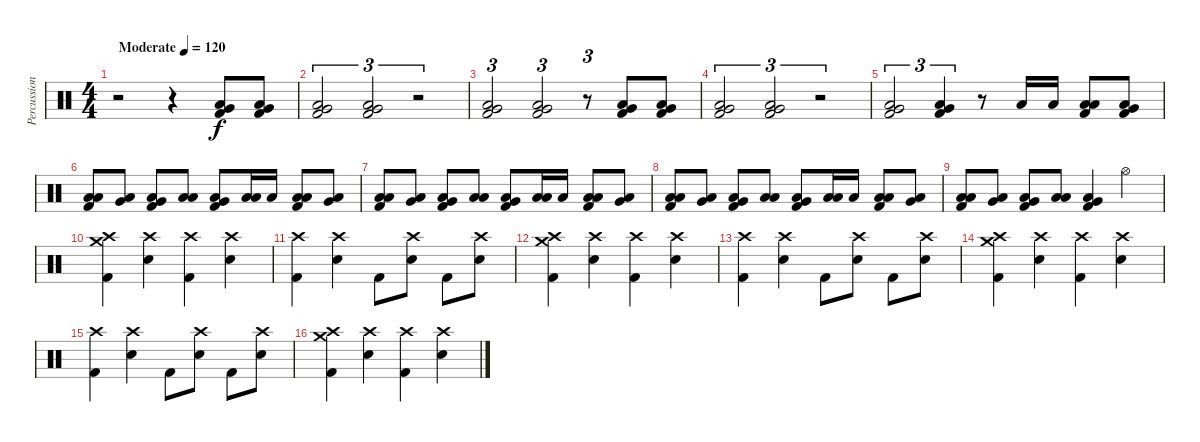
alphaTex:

\track ("Percussion" "Percussion") {instrument percussion}
\staff {score}
\articulation defaults
\ts (4 4)
\tempo (120 "Moderate")
\clef neutral
\ks c
r.2{dy f} r.4 ("Kick (hit) 2" "Low Floor Tom (hit)" "Very Low Tom (hit)").8 ("Kick (hit) 2" "Low Floor Tom (hit)" "Very Low Tom (hit)").8 |
("Kick (hit) 2" "Low Floor Tom (hit)" "Very Low Tom (hit)").2{tu (3 2)} ("Kick (hit) 2" "Low Floor Tom (hit)" "Very Low Tom (hit)").2{tu (3 2)} r.2{tu (3 2)} |
("Kick (hit) 2" "Low Floor Tom (hit)" "Very Low Tom (hit)").2{tu (3 2)} ("Kick (hit) 2" "Low Floor Tom (hit)" "Very Low Tom (hit)").2{tu (3 2)} r.8{tu (3 2)} ("Kick (hit) 2" "Low Floor Tom (hit)" "Very Low Tom (hit)").8 ("Kick (hit) 2" "Low Floor Tom (hit)" "Very Low Tom (hit)").8 |
("Kick (hit) 2" "Low Floor Tom (hit)" "Very Low Tom (hit)").2{tu (3 2)} ("Kick (hit) 2" "Low Floor Tom (hit)" "Very Low Tom (hit)").2{tu (3 2)} r.2{tu (3 2)} |
("Kick (hit) 2" "Low Floor Tom (hit)" "Very Low Tom (hit)").2{tu (3 2)} ("Kick (hit) 2" "Low Floor Tom (hit)" "Very Low Tom (hit)").4{tu (3 2)} r.8 "Low Tom (hit)".16 "Low Tom (hit)".16 ("Kick (hit) 2" "Low Floor Tom (hit)" "Low Tom (hit)").8 ("Kick (hit) 2" "Low Floor Tom (hit)" "Very Low Tom (hit)").8 |
("Kick (hit) 2" "Low Floor Tom (hit)" "Low Tom (hit)").8 ("Low Floor Tom (hit)" "Very Low Tom (hit)").8 ("Kick (hit) 2" "Low Floor Tom (hit)" "Very Low Tom (hit)").8 ("Low Floor Tom (hit)" "Low Tom (hit)").8 ("Kick (hit) 2" "Low Floor Tom (hit)" "Very Low Tom (hit)").8 ("Low Floor Tom (hit)" "Low Tom (hit)").16 "Low Tom (hit)".16 ("Kick (hit) 2" "Low Floor Tom (hit)" "Low Tom (hit)").8 ("Low Floor Tom (hit)" "Very Low Tom (hit)").8 |
("Kick (hit) 2" "Low Floor Tom (hit)" "Low Tom (hit)").8 ("Low Floor Tom (hit)" "Very Low Tom (hit)").8 ("Kick (hit) 2" "Low Floor Tom (hit)" "Very Low Tom (hit)").8 ("Low Floor Tom (hit)" "Low Tom (hit)").8 ("Kick (hit) 2" "Low Floor Tom (hit)" "Very Low Tom (hit)").8 ("Low Floor Tom (hit)" "Low Tom (hit)").16 "Low Tom (hit)".16 ("Kick (hit) 2" "Low Floor Tom (hit)" "Low Tom (hit)").8 ("Low Floor Tom (hit)" "Very Low Tom (hit)").8 |
("Kick (hit) 2" "Low Floor Tom (hit)" "Low Tom (hit)").8 ("Low Floor Tom (hit)" "Very Low Tom (hit)").8 ("Kick (hit) 2" "Low Floor Tom (hit)" "Very Low Tom (hit)").8 ("Low Floor Tom (hit)" "Low Tom (hit)").8 ("Kick (hit) 2" "Low Floor Tom (hit)" "Very Low Tom (hit)").8 ("Low Floor Tom (hit)" "Low Tom (hit)").16 "Low Tom (hit)".16 ("Kick (hit) 2" "Low Floor Tom (hit)" "Low Tom (hit)").8 ("Low Floor Tom (hit)" "Very Low Tom (hit)").8 |
("Kick (hit) 2" "Low Floor Tom (hit)" "Low Tom (hit)").8 ("Low Floor Tom (hit)" "Very Low Tom (hit)").8 ("Kick (hit) 2" "Low Floor Tom (hit)" "Very Low Tom (hit)").8 ("Low Floor Tom (hit)" "Low Tom (hit)").8 ("Kick (hit) 2" "Low Floor Tom (hit)" "Very Low Tom (hit)").4 "Hi-Hat (open)".4 |
("Kick (hit) 2" "Crash high (hit)" "Crash medium (hit)").4 ("Snare (hit) 2" "Crash high (hit)").4 ("Kick (hit) 2" "Crash high (hit)").4 ("Snare (hit) 2" "Crash high (hit)").4 |
("Kick (hit) 2" "Crash high (hit)").4 ("Snare (hit) 2" "Crash high (hit)").4 "Kick (hit) 2".8 ("Snare (hit) 2" "Crash high (hit)").8 "Kick (hit) 2".8 ("Snare (hit) 2" "Crash high (hit)").8 |
("Kick (hit) 2" "Crash high (hit)" "Crash medium (hit)").4 ("Snare (hit) 2" "Crash high (hit)").4 ("Kick (hit) 2" "Crash high (hit)").4 ("Snare (hit) 2" "Crash high (hit)").4 |
("Kick (hit) 2" "Crash high (hit)").4 ("Snare (hit) 2" "Crash high (hit)").4 "Kick (hit) 2".8 ("Snare (hit) 2" "Crash high (hit)").8 "Kick (hit) 2".8 ("Snare (hit) 2" "Crash high (hit)").8 |
("Kick (hit) 2" "Crash high (hit)" "Crash medium (hit)").4 ("Snare (hit) 2" "Crash high (hit)").4 ("Kick (hit) 2" "Crash high (hit)").4 ("Snare (hit) 2" "Crash high (hit)").4 |
("Kick (hit) 2" "Crash high (hit)").4 ("Snare (hit) 2" "Crash high (hit)").4 "Kick (hit) 2".8 ("Snare (hit) 2" "Crash high (hit)").8 "Kick (hit) 2".8 ("Snare (hit) 2" "Crash high (hit)").8 |
("Kick (hit) 2" "Crash high (hit)" "Crash medium (hit)").4 ("Snare (hit) 2" "Crash high (hit)").4 ("Kick (hit) 2" "Crash high (hit)").4 ("Snare (hit) 2" "Crash high (hit)").4
